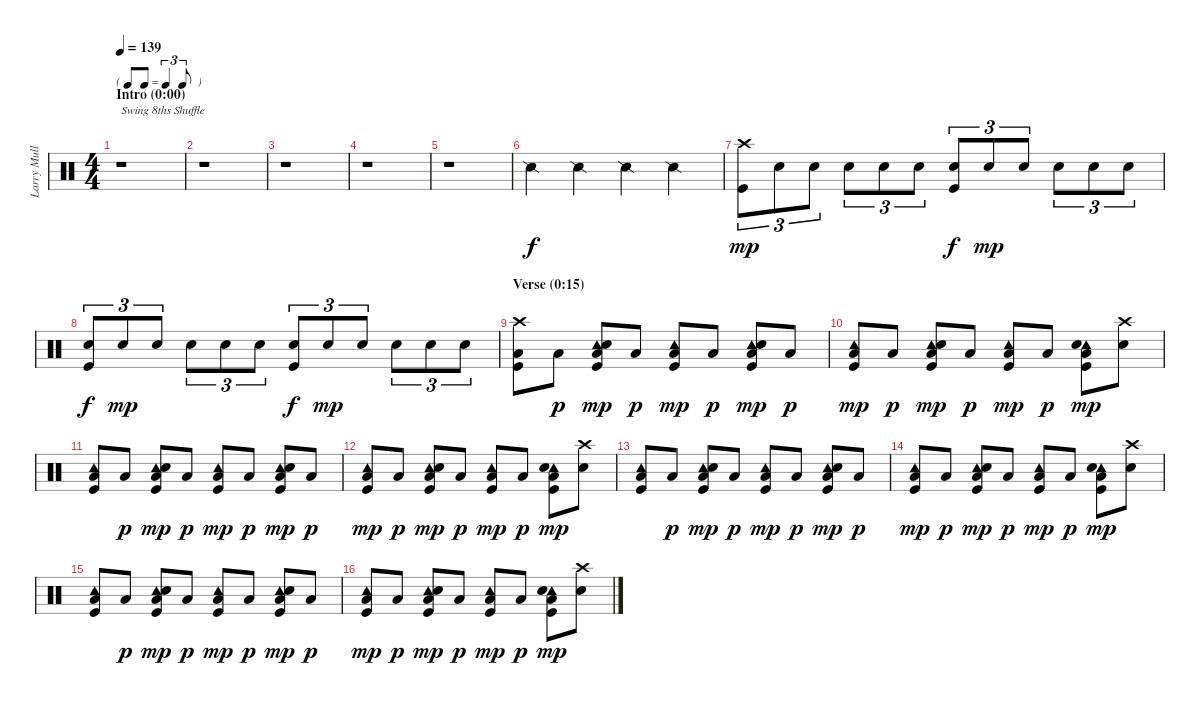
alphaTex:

\track ("Larry Mullen Jr" "Larry Mull") {instrument percussion}
\staff {score}
\articulation defaults
\ts (4 4)
\tf triplet8th
\section ("" "Intro (0:00)")
\tempo 139
\clef neutral
\ks c
r.1{txt "Swing 8ths Shuffle" dy f} |
r.1 |
r.1 |
r.1 |
r.1 |
"Snare (side stick) 2".4 "Snare (side stick) 2".4 "Snare (side stick) 2".4 "Snare (side stick) 2".4 |
("Crash high (hit)" "Kick (hit)").8{tu (3 2) dy mp} "Electric Snare (hit)".8{tu (3 2)} "Electric Snare (hit)".8{tu (3 2)} "Electric Snare (hit)".8{tu (3 2)} "Electric Snare (hit)".8{tu (3 2)} "Electric Snare (hit)".8{tu (3 2)} ("Electric Snare (hit)" "Kick (hit)").8{tu (3 2) dy f} "Electric Snare (hit)".8{tu (3 2) dy mp} "Electric Snare (hit)".8{tu (3 2)} "Electric Snare (hit)".8{tu (3 2)} "Electric Snare (hit)".8{tu (3 2)} "Electric Snare (hit)".8{tu (3 2)} |
("Electric Snare (hit)" "Kick (hit)").8{tu (3 2) dy f} "Electric Snare (hit)".8{tu (3 2) dy mp} "Electric Snare (hit)".8{tu (3 2)} "Electric Snare (hit)".8{tu (3 2)} "Electric Snare (hit)".8{tu (3 2)} "Electric Snare (hit)".8{tu (3 2)} ("Electric Snare (hit)" "Kick (hit)").8{tu (3 2) dy f} "Electric Snare (hit)".8{tu (3 2) dy mp} "Electric Snare (hit)".8{tu (3 2)} "Electric Snare (hit)".8{tu (3 2)} "Electric Snare (hit)".8{tu (3 2)} "Electric Snare (hit)".8{tu (3 2)} |
\section ("" "Verse (0:15)")
("Crash high (hit)" "Low Floor Tom (hit)" "Kick (hit)").8 "Low Floor Tom (hit)".8{dy p} ("Tambourine (hit)" "Electric Snare (hit)" "Low Floor Tom (hit)" "Kick (hit)").8{dy mp} "Low Floor Tom (hit)".8{dy p} ("Tambourine (hit)" "Low Floor Tom (hit)" "Kick (hit)").8{dy mp} "Low Floor Tom (hit)".8{dy p} ("Tambourine (hit)" "Electric Snare (hit)" "Low Floor Tom (hit)" "Kick (hit)").8{dy mp} "Low Floor Tom (hit)".8{dy p} |
("Tambourine (hit)" "Low Floor Tom (hit)" "Kick (hit)").8{dy mp} "Low Floor Tom (hit)".8{dy p} ("Tambourine (hit)" "Electric Snare (hit)" "Low Floor Tom (hit)" "Kick (hit)").8{dy mp} "Low Floor Tom (hit)".8{dy p} ("Tambourine (hit)" "Low Floor Tom (hit)" "Kick (hit)").8{dy mp} "Low Floor Tom (hit)".8{dy p} ("Tambourine (hit)" "Electric Snare (hit)" "Low Floor Tom (hit)" "Kick (hit)").8{dy mp} ("Crash high (hit)" "Electric Snare (hit)").8 |
("Tambourine (hit)" "Low Floor Tom (hit)" "Kick (hit)").8 "Low Floor Tom (hit)".8{dy p} ("Tambourine (hit)" "Electric Snare (hit)" "Low Floor Tom (hit)" "Kick (hit)").8{dy mp} "Low Floor Tom (hit)".8{dy p} ("Tambourine (hit)" "Low Floor Tom (hit)" "Kick (hit)").8{dy mp} "Low Floor Tom (hit)".8{dy p} ("Tambourine (hit)" "Electric Snare (hit)" "Low Floor Tom (hit)" "Kick (hit)").8{dy mp} "Low Floor Tom (hit)".8{dy p} |
("Tambourine (hit)" "Low Floor Tom (hit)" "Kick (hit)").8{dy mp} "Low Floor Tom (hit)".8{dy p} ("Tambourine (hit)" "Electric Snare (hit)" "Low Floor Tom (hit)" "Kick (hit)").8{dy mp} "Low Floor Tom (hit)".8{dy p} ("Tambourine (hit)" "Low Floor Tom (hit)" "Kick (hit)").8{dy mp} "Low Floor Tom (hit)".8{dy p} ("Tambourine (hit)" "Electric Snare (hit)" "Low Floor Tom (hit)" "Kick (hit)").8{dy mp} ("Crash high (hit)" "Electric Snare (hit)").8 |
("Tambourine (hit)" "Low Floor Tom (hit)" "Kick (hit)").8 "Low Floor Tom (hit)".8{dy p} ("Tambourine (hit)" "Electric Snare (hit)" "Low Floor Tom (hit)" "Kick (hit)").8{dy mp} "Low Floor Tom (hit)".8{dy p} ("Tambourine (hit)" "Low Floor Tom (hit)" "Kick (hit)").8{dy mp} "Low Floor Tom (hit)".8{dy p} ("Tambourine (hit)" "Electric Snare (hit)" "Low Floor Tom (hit)" "Kick (hit)").8{dy mp} "Low Floor Tom (hit)".8{dy p} |
("Tambourine (hit)" "Low Floor Tom (hit)" "Kick (hit)").8{dy mp} "Low Floor Tom (hit)".8{dy p} ("Tambourine (hit)" "Electric Snare (hit)" "Low Floor Tom (hit)" "Kick (hit)").8{dy mp} "Low Floor Tom (hit)".8{dy p} ("Tambourine (hit)" "Low Floor Tom (hit)" "Kick (hit)").8{dy mp} "Low Floor Tom (hit)".8{dy p} ("Tambourine (hit)" "Electric Snare (hit)" "Low Floor Tom (hit)" "Kick (hit)").8{dy mp} ("Crash high (hit)" "Electric Snare (hit)").8 |
("Tambourine (hit)" "Low Floor Tom (hit)" "Kick (hit)").8 "Low Floor Tom (hit)".8{dy p} ("Tambourine (hit)" "Electric Snare (hit)" "Low Floor Tom (hit)" "Kick (hit)").8{dy mp} "Low Floor Tom (hit)".8{dy p} ("Tambourine (hit)" "Low Floor Tom (hit)" "Kick (hit)").8{dy mp} "Low Floor Tom (hit)".8{dy p} ("Tambourine (hit)" "Electric Snare (hit)" "Low Floor Tom (hit)" "Kick (hit)").8{dy mp} "Low Floor Tom (hit)".8{dy p} |
("Tambourine (hit)" "Low Floor Tom (hit)" "Kick (hit)").8{dy mp} "Low Floor Tom (hit)".8{dy p} ("Tambourine (hit)" "Electric Snare (hit)" "Low Floor Tom (hit)" "Kick (hit)").8{dy mp} "Low Floor Tom (hit)".8{dy p} ("Tambourine (hit)" "Low Floor Tom (hit)" "Kick (hit)").8{dy mp} "Low Floor Tom (hit)".8{dy p} ("Tambourine (hit)" "Electric Snare (hit)" "Low Floor Tom (hit)" "Kick (hit)").8{dy mp} ("Crash high (hit)" "Electric Snare (hit)").8
